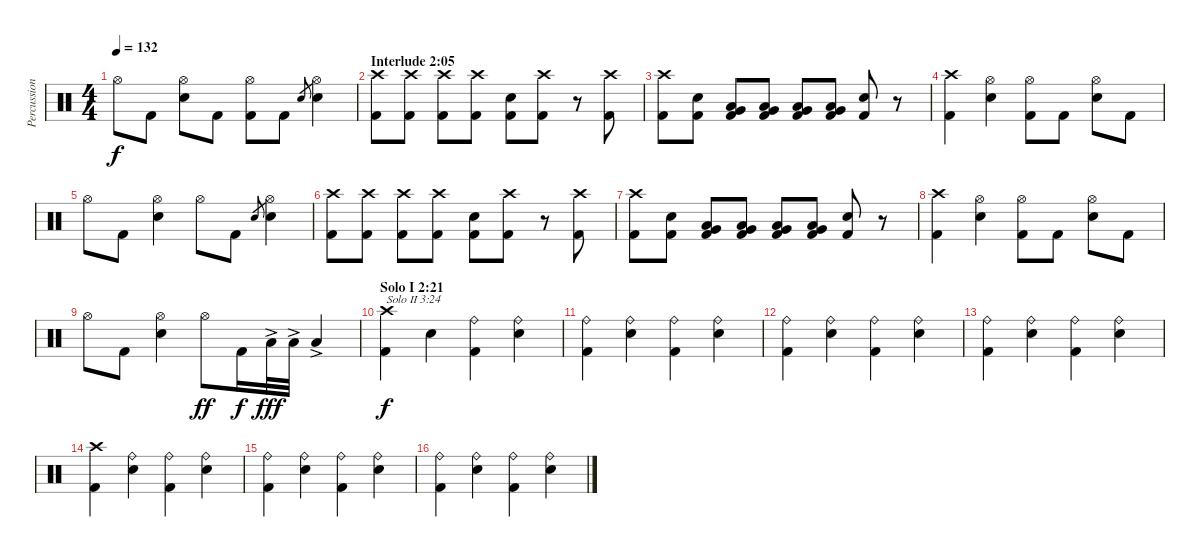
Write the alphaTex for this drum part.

\track ("Percussion" "Percussion") {instrument percussion}
\staff {score}
\articulation defaults
\ts (4 4)
\tempo 132
\clef neutral
\ks c "Hi-Hat (open)".8{dy f} "Kick (hit) 2".8
("Electric Snare (hit)" "Hi-Hat (open)").8 "Kick (hit) 2".8 ("Kick (hit) 2" "Hi-Hat (open)").8 "Kick (hit) 2".8 "Electric Snare (hit)".8{gr} ("Electric Snare (hit)" "Hi-Hat (open)").4 |
\section ("" "Interlude 2:05")
("Kick (hit) 2" "Crash high (hit)").8 ("Kick (hit) 2" "Crash high (hit)").8 ("Kick (hit) 2" "Crash high (hit)").8 ("Kick (hit) 2" "Crash high (hit)").8 ("Kick (hit) 2" "Electric Snare (hit)").8 ("Kick (hit) 2" "Crash high (hit)").8 r.8 ("Kick (hit) 2" "Crash high (hit)").8 |
("Kick (hit) 2" "Crash high (hit)").8 ("Kick (hit) 2" "Electric Snare (hit)").8 ("Kick (hit) 2" "Low Tom (hit)" "Very Low Tom (hit)").8 ("Kick (hit) 2" "Low Tom (hit)" "Very Low Tom (hit)").8 ("Kick (hit) 2" "Low Tom (hit)" "Very Low Tom (hit)").8 ("Kick (hit) 2" "Low Tom (hit)" "Very Low Tom (hit)").8 ("Kick (hit) 2" "Electric Snare (hit)").8 r.8 |
("Kick (hit) 2" "Crash high (hit)").4 ("Electric Snare (hit)" "Hi-Hat (open)").4 ("Kick (hit) 2" "Hi-Hat (open)").8 "Kick (hit) 2".8 ("Electric Snare (hit)" "Hi-Hat (open)").8 "Kick (hit) 2".8 |
"Hi-Hat (open)".8 "Kick (hit) 2".8 ("Electric Snare (hit)" "Hi-Hat (open)").4 "Hi-Hat (open)".8 "Kick (hit) 2".8 "Electric Snare (hit)".8{gr} ("Electric Snare (hit)" "Hi-Hat (open)").4 |
("Kick (hit) 2" "Crash high (hit)").8 ("Kick (hit) 2" "Crash high (hit)").8 ("Kick (hit) 2" "Crash high (hit)").8 ("Kick (hit) 2" "Crash high (hit)").8 ("Kick (hit) 2" "Electric Snare (hit)").8 ("Kick (hit) 2" "Crash high (hit)").8 r.8 ("Kick (hit) 2" "Crash high (hit)").8 |
("Kick (hit) 2" "Crash high (hit)").8 ("Kick (hit) 2" "Electric Snare (hit)").8 ("Kick (hit) 2" "Low Tom (hit)" "Very Low Tom (hit)").8 ("Kick (hit) 2" "Low Tom (hit)" "Very Low Tom (hit)").8 ("Kick (hit) 2" "Low Tom (hit)" "Very Low Tom (hit)").8 ("Kick (hit) 2" "Low Tom (hit)" "Very Low Tom (hit)").8 ("Kick (hit) 2" "Electric Snare (hit)").8 r.8 |
("Kick (hit) 2" "Crash high (hit)").4 ("Electric Snare (hit)" "Hi-Hat (open)").4 ("Kick (hit) 2" "Hi-Hat (open)").8 "Kick (hit) 2".8 ("Electric Snare (hit)" "Hi-Hat (open)").8 "Kick (hit) 2".8 |
"Hi-Hat (open)".8 "Kick (hit) 2".8 ("Electric Snare (hit)" "Hi-Hat (open)").4 "Hi-Hat (open)".8{dy ff} "Kick (hit) 2".16{dy f} "Low Tom (hit)"{ac}.32{dy fff} "Low Tom (hit)"{ac}.32 "Low Tom (hit)"{ac}.4 |
\section ("" "Solo I 2:21")
("Kick (hit) 2" "Crash high (hit)").4{txt "Solo II 3:24" dy f} "Electric Snare (hit)".4 ("Kick (hit) 2" "Ride (bell)").4 ("Electric Snare (hit)" "Ride (bell)").4 |
("Kick (hit) 2" "Ride (bell)").4 ("Electric Snare (hit)" "Ride (bell)").4 ("Kick (hit) 2" "Ride (bell)").4 ("Electric Snare (hit)" "Ride (bell)").4 |
("Kick (hit) 2" "Ride (bell)").4 ("Electric Snare (hit)" "Ride (bell)").4 ("Kick (hit) 2" "Ride (bell)").4 ("Electric Snare (hit)" "Ride (bell)").4 |
("Kick (hit) 2" "Ride (bell)").4 ("Electric Snare (hit)" "Ride (bell)").4 ("Kick (hit) 2" "Ride (bell)").4 ("Electric Snare (hit)" "Ride (bell)").4 |
("Kick (hit) 2" "Crash high (hit)").4 ("Electric Snare (hit)" "Ride (bell)").4 ("Kick (hit) 2" "Ride (bell)").4 ("Electric Snare (hit)" "Ride (bell)").4 |
("Kick (hit) 2" "Ride (bell)").4 ("Electric Snare (hit)" "Ride (bell)").4 ("Kick (hit) 2" "Ride (bell)").4 ("Electric Snare (hit)" "Ride (bell)").4 |
("Kick (hit) 2" "Ride (bell)").4 ("Electric Snare (hit)" "Ride (bell)").4 ("Kick (hit) 2" "Ride (bell)").4 ("Electric Snare (hit)" "Ride (bell)").4
